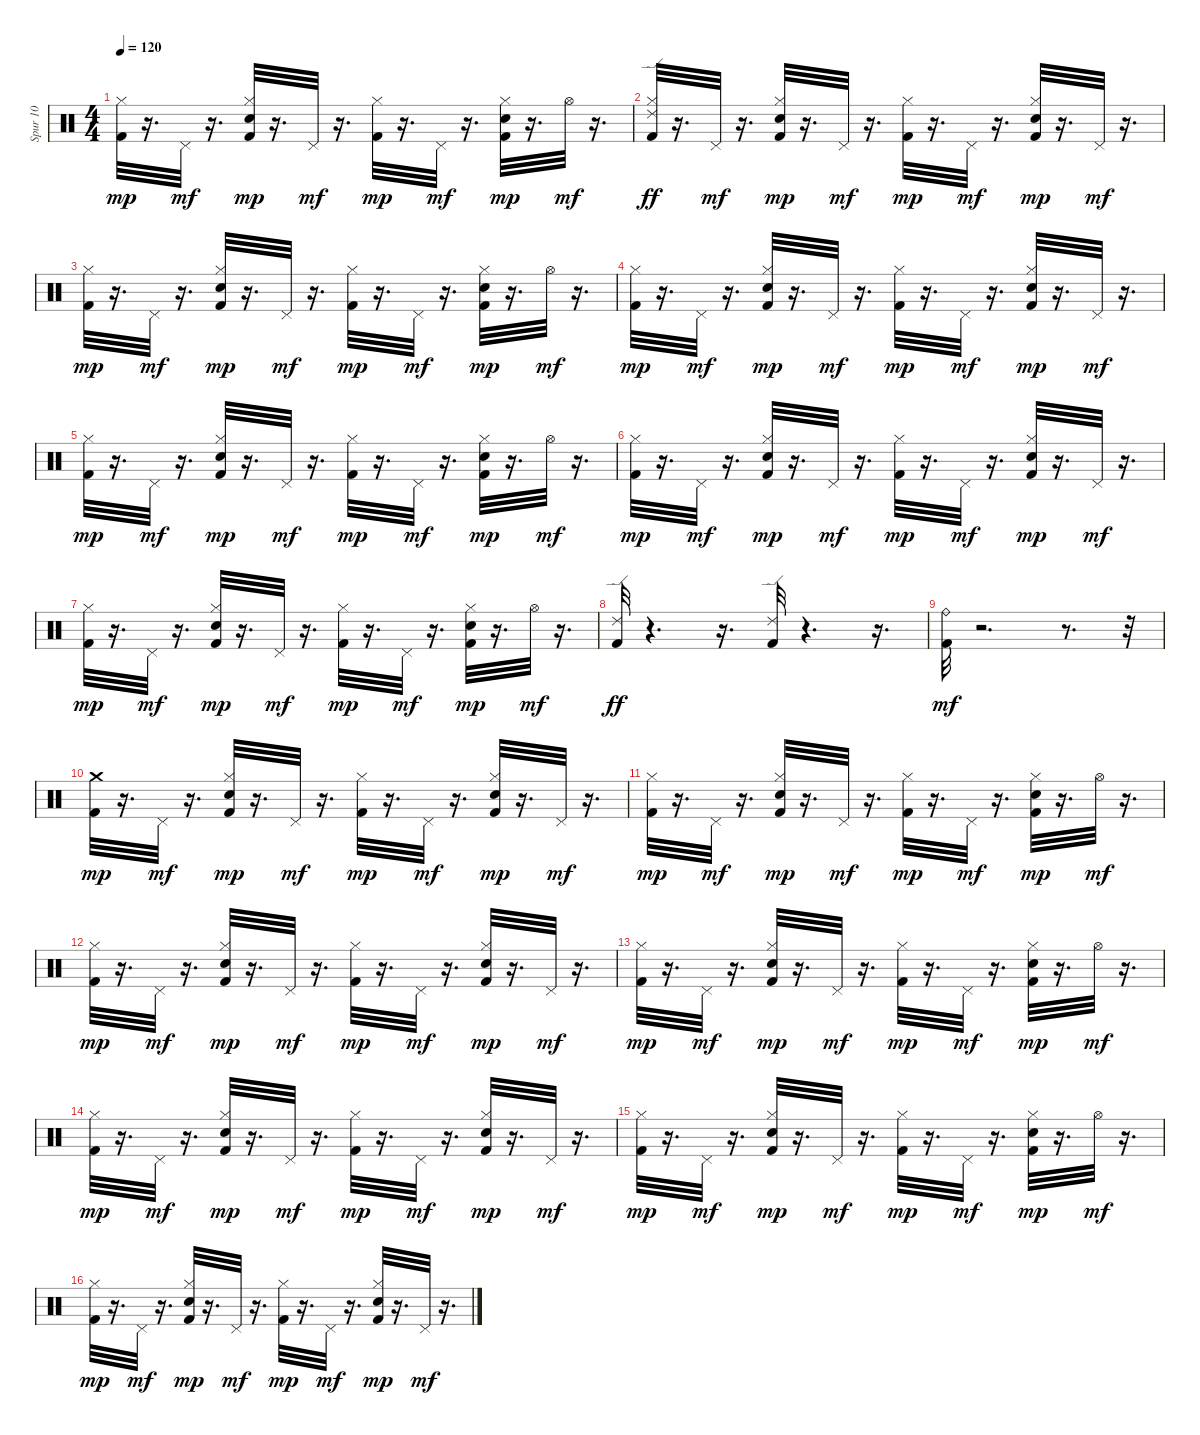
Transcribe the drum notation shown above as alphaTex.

\track ("Spur 10" "Spur 10") {instrument percussion}
\staff {score}
\articulation defaults
\ts (4 4)
\tempo 120
\clef neutral
\ks c
("Kick (hit) 2" "Hi-Hat (closed)").32{dy mp} r.16{d} "Pedal Hi-Hat (hit)".32{dy mf} r.16{d} ("Kick (hit) 2" "Electric Snare (hit)" "Hi-Hat (closed)").32{dy mp} r.16{d} "Pedal Hi-Hat (hit)".32{dy mf} r.16{d} ("Kick (hit) 2" "Hi-Hat (closed)").32{dy mp} r.16{d} "Pedal Hi-Hat (hit)".32{dy mf} r.16{d} ("Kick (hit) 2" "Electric Snare (hit)" "Hi-Hat (closed)").32{dy mp} r.16{d} "Hi-Hat (open)".32{dy mf} r.16{d} |
("Ride (edge) 2" "Hi-Hat (closed)" "Kick (hit) 2").32{dy ff} r.16{d} "Pedal Hi-Hat (hit)".32{dy mf} r.16{d} ("Hi-Hat (closed)" "Kick (hit) 2" "Electric Snare (hit)").32{dy mp} r.16{d} "Pedal Hi-Hat (hit)".32{dy mf} r.16{d} ("Kick (hit) 2" "Hi-Hat (closed)").32{dy mp} r.16{d} "Pedal Hi-Hat (hit)".32{dy mf} r.16{d} ("Kick (hit) 2" "Electric Snare (hit)" "Hi-Hat (closed)").32{dy mp} r.16{d} "Pedal Hi-Hat (hit)".32{dy mf} r.16{d} |
("Kick (hit) 2" "Hi-Hat (closed)").32{dy mp} r.16{d} "Pedal Hi-Hat (hit)".32{dy mf} r.16{d} ("Kick (hit) 2" "Electric Snare (hit)" "Hi-Hat (closed)").32{dy mp} r.16{d} "Pedal Hi-Hat (hit)".32{dy mf} r.16{d} ("Kick (hit) 2" "Hi-Hat (closed)").32{dy mp} r.16{d} "Pedal Hi-Hat (hit)".32{dy mf} r.16{d} ("Kick (hit) 2" "Electric Snare (hit)" "Hi-Hat (closed)").32{dy mp} r.16{d} "Hi-Hat (open)".32{dy mf} r.16{d} |
("Kick (hit) 2" "Hi-Hat (closed)").32{dy mp} r.16{d} "Pedal Hi-Hat (hit)".32{dy mf} r.16{d} ("Kick (hit) 2" "Electric Snare (hit)" "Hi-Hat (closed)").32{dy mp} r.16{d} "Pedal Hi-Hat (hit)".32{dy mf} r.16{d} ("Kick (hit) 2" "Hi-Hat (closed)").32{dy mp} r.16{d} "Pedal Hi-Hat (hit)".32{dy mf} r.16{d} ("Kick (hit) 2" "Electric Snare (hit)" "Hi-Hat (closed)").32{dy mp} r.16{d} "Pedal Hi-Hat (hit)".32{dy mf} r.16{d} |
("Kick (hit) 2" "Hi-Hat (closed)").32{dy mp} r.16{d} "Pedal Hi-Hat (hit)".32{dy mf} r.16{d} ("Kick (hit) 2" "Electric Snare (hit)" "Hi-Hat (closed)").32{dy mp} r.16{d} "Pedal Hi-Hat (hit)".32{dy mf} r.16{d} ("Kick (hit) 2" "Hi-Hat (closed)").32{dy mp} r.16{d} "Pedal Hi-Hat (hit)".32{dy mf} r.16{d} ("Kick (hit) 2" "Electric Snare (hit)" "Hi-Hat (closed)").32{dy mp} r.16{d} "Hi-Hat (open)".32{dy mf} r.16{d} |
("Kick (hit) 2" "Hi-Hat (closed)").32{dy mp} r.16{d} "Pedal Hi-Hat (hit)".32{dy mf} r.16{d} ("Kick (hit) 2" "Electric Snare (hit)" "Hi-Hat (closed)").32{dy mp} r.16{d} "Pedal Hi-Hat (hit)".32{dy mf} r.16{d} ("Kick (hit) 2" "Hi-Hat (closed)").32{dy mp} r.16{d} "Pedal Hi-Hat (hit)".32{dy mf} r.16{d} ("Kick (hit) 2" "Electric Snare (hit)" "Hi-Hat (closed)").32{dy mp} r.16{d} "Pedal Hi-Hat (hit)".32{dy mf} r.16{d} |
("Kick (hit) 2" "Hi-Hat (closed)").32{dy mp} r.16{d} "Pedal Hi-Hat (hit)".32{dy mf} r.16{d} ("Kick (hit) 2" "Electric Snare (hit)" "Hi-Hat (closed)").32{dy mp} r.16{d} "Pedal Hi-Hat (hit)".32{dy mf} r.16{d} ("Kick (hit) 2" "Hi-Hat (closed)").32{dy mp} r.16{d} "Pedal Hi-Hat (hit)".32{dy mf} r.16{d} ("Kick (hit) 2" "Electric Snare (hit)" "Hi-Hat (closed)").32{dy mp} r.16{d} "Hi-Hat (open)".32{dy mf} r.16{d} |
("Ride (edge) 2" "Kick (hit) 2").32{dy ff} r.4{d} r.16{d} ("Kick (hit) 2" "Ride (edge) 2").32 r.4{d} r.16{d} |
("Kick (hit) 2" "Ride (bell)").32{dy mf} r.2{d} r.8{d} r.32 |
("Kick (hit) 2" "Crash medium (hit)").32{dy mp} r.16{d} "Pedal Hi-Hat (hit)".32{dy mf} r.16{d} ("Electric Snare (hit)" "Kick (hit) 2" "Hi-Hat (closed)").32{dy mp} r.16{d} "Pedal Hi-Hat (hit)".32{dy mf} r.16{d} ("Kick (hit) 2" "Hi-Hat (closed)").32{dy mp} r.16{d} "Pedal Hi-Hat (hit)".32{dy mf} r.16{d} ("Kick (hit) 2" "Electric Snare (hit)" "Hi-Hat (closed)").32{dy mp} r.16{d} "Pedal Hi-Hat (hit)".32{dy mf} r.16{d} |
("Kick (hit) 2" "Hi-Hat (closed)").32{dy mp} r.16{d} "Pedal Hi-Hat (hit)".32{dy mf} r.16{d} ("Kick (hit) 2" "Electric Snare (hit)" "Hi-Hat (closed)").32{dy mp} r.16{d} "Pedal Hi-Hat (hit)".32{dy mf} r.16{d} ("Kick (hit) 2" "Hi-Hat (closed)").32{dy mp} r.16{d} "Pedal Hi-Hat (hit)".32{dy mf} r.16{d} ("Kick (hit) 2" "Electric Snare (hit)" "Hi-Hat (closed)").32{dy mp} r.16{d} "Hi-Hat (open)".32{dy mf} r.16{d} |
("Kick (hit) 2" "Hi-Hat (closed)").32{dy mp} r.16{d} "Pedal Hi-Hat (hit)".32{dy mf} r.16{d} ("Kick (hit) 2" "Electric Snare (hit)" "Hi-Hat (closed)").32{dy mp} r.16{d} "Pedal Hi-Hat (hit)".32{dy mf} r.16{d} ("Kick (hit) 2" "Hi-Hat (closed)").32{dy mp} r.16{d} "Pedal Hi-Hat (hit)".32{dy mf} r.16{d} ("Kick (hit) 2" "Electric Snare (hit)" "Hi-Hat (closed)").32{dy mp} r.16{d} "Pedal Hi-Hat (hit)".32{dy mf} r.16{d} |
("Kick (hit) 2" "Hi-Hat (closed)").32{dy mp} r.16{d} "Pedal Hi-Hat (hit)".32{dy mf} r.16{d} ("Kick (hit) 2" "Electric Snare (hit)" "Hi-Hat (closed)").32{dy mp} r.16{d} "Pedal Hi-Hat (hit)".32{dy mf} r.16{d} ("Kick (hit) 2" "Hi-Hat (closed)").32{dy mp} r.16{d} "Pedal Hi-Hat (hit)".32{dy mf} r.16{d} ("Kick (hit) 2" "Electric Snare (hit)" "Hi-Hat (closed)").32{dy mp} r.16{d} "Hi-Hat (open)".32{dy mf} r.16{d} |
("Kick (hit) 2" "Hi-Hat (closed)").32{dy mp} r.16{d} "Pedal Hi-Hat (hit)".32{dy mf} r.16{d} ("Kick (hit) 2" "Electric Snare (hit)" "Hi-Hat (closed)").32{dy mp} r.16{d} "Pedal Hi-Hat (hit)".32{dy mf} r.16{d} ("Kick (hit) 2" "Hi-Hat (closed)").32{dy mp} r.16{d} "Pedal Hi-Hat (hit)".32{dy mf} r.16{d} ("Kick (hit) 2" "Electric Snare (hit)" "Hi-Hat (closed)").32{dy mp} r.16{d} "Pedal Hi-Hat (hit)".32{dy mf} r.16{d} |
("Kick (hit) 2" "Hi-Hat (closed)").32{dy mp} r.16{d} "Pedal Hi-Hat (hit)".32{dy mf} r.16{d} ("Kick (hit) 2" "Electric Snare (hit)" "Hi-Hat (closed)").32{dy mp} r.16{d} "Pedal Hi-Hat (hit)".32{dy mf} r.16{d} ("Kick (hit) 2" "Hi-Hat (closed)").32{dy mp} r.16{d} "Pedal Hi-Hat (hit)".32{dy mf} r.16{d} ("Kick (hit) 2" "Electric Snare (hit)" "Hi-Hat (closed)").32{dy mp} r.16{d} "Hi-Hat (open)".32{dy mf} r.16{d} |
("Kick (hit) 2" "Hi-Hat (closed)").32{dy mp} r.16{d} "Pedal Hi-Hat (hit)".32{dy mf} r.16{d} ("Kick (hit) 2" "Electric Snare (hit)" "Hi-Hat (closed)").32{dy mp} r.16{d} "Pedal Hi-Hat (hit)".32{dy mf} r.16{d} ("Kick (hit) 2" "Hi-Hat (closed)").32{dy mp} r.16{d} "Pedal Hi-Hat (hit)".32{dy mf} r.16{d} ("Kick (hit) 2" "Electric Snare (hit)" "Hi-Hat (closed)").32{dy mp} r.16{d} "Pedal Hi-Hat (hit)".32{dy mf} r.16{d}
